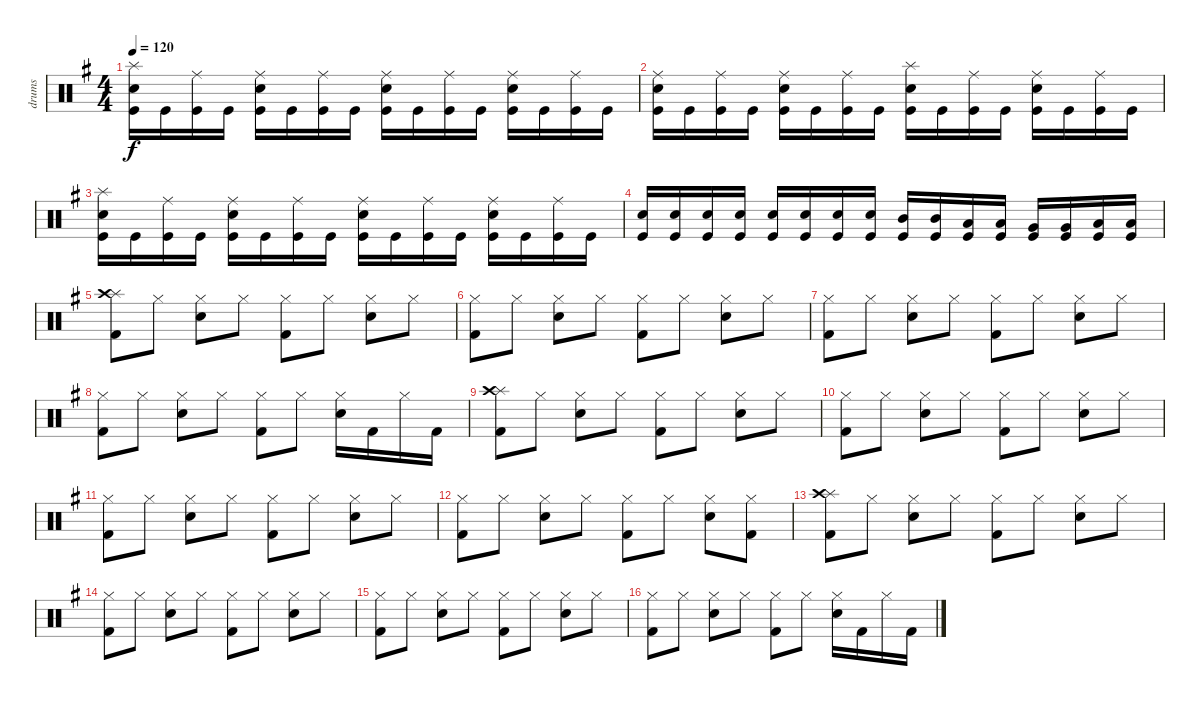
\track ("drums" "drums") {instrument percussion}
\staff {score}
\articulation defaults
\ts (4 4)
\tempo 120
\clef neutral
\ks eminor
("Kick (hit)" "Electric Snare (hit)" "Splash (hit)").16{dy f} "Kick (hit)".16 ("Kick (hit)" "Ride (middle)").16 "Kick (hit)".16 ("Kick (hit)" "Electric Snare (hit)" "Ride (middle)").16 "Kick (hit)".16 ("Kick (hit)" "Ride (middle)").16 "Kick (hit)".16 ("Kick (hit)" "Electric Snare (hit)" "Ride (middle)").16 "Kick (hit)".16 ("Kick (hit)" "Ride (middle)").16 "Kick (hit)".16 ("Kick (hit)" "Electric Snare (hit)" "Ride (middle)").16 "Kick (hit)".16 ("Kick (hit)" "Ride (middle)").16 "Kick (hit)".16 |
("Kick (hit)" "Electric Snare (hit)" "Ride (middle)").16 "Kick (hit)".16 ("Kick (hit)" "Ride (middle)").16 "Kick (hit)".16 ("Kick (hit)" "Electric Snare (hit)" "Ride (middle)").16 "Kick (hit)".16 ("Kick (hit)" "Ride (middle)").16 "Kick (hit)".16 ("Kick (hit)" "Electric Snare (hit)" "Splash (hit)").16 "Kick (hit)".16 ("Kick (hit)" "Ride (middle)").16 "Kick (hit)".16 ("Kick (hit)" "Electric Snare (hit)" "Ride (middle)").16 "Kick (hit)".16 ("Kick (hit)" "Ride (middle)").16 "Kick (hit)".16 |
("Kick (hit)" "Electric Snare (hit)" "Splash (hit)").16 "Kick (hit)".16 ("Kick (hit)" "Ride (middle)").16 "Kick (hit)".16 ("Kick (hit)" "Electric Snare (hit)" "Ride (middle)").16 "Kick (hit)".16 ("Kick (hit)" "Ride (middle)").16 "Kick (hit)".16 ("Kick (hit)" "Electric Snare (hit)" "Ride (middle)").16 "Kick (hit)".16 ("Kick (hit)" "Ride (middle)").16 "Kick (hit)".16 ("Kick (hit)" "Electric Snare (hit)" "Ride (middle)").16 "Kick (hit)".16 ("Kick (hit)" "Ride (middle)").16 "Kick (hit)".16 |
("Kick (hit)" "Electric Snare (hit)").16 ("Kick (hit)" "Electric Snare (hit)").16 ("Kick (hit)" "Electric Snare (hit)").16 ("Kick (hit)" "Electric Snare (hit)").16 ("Kick (hit)" "Electric Snare (hit)").16 ("Kick (hit)" "Electric Snare (hit)").16 ("Kick (hit)" "Electric Snare (hit)").16 ("Kick (hit)" "Electric Snare (hit)").16 ("Kick (hit)" "Mid Tom (hit)").16 ("Kick (hit)" "Mid Tom (hit)").16 ("Kick (hit)" "Low Tom (hit)").16 ("Kick (hit)" "Low Tom (hit)").16 ("Kick (hit)" "Very Low Tom (hit)").16 ("Kick (hit)" "Very Low Tom (hit)").16 ("Kick (hit)" "Low Floor Tom (hit)").16 ("Kick (hit)" "Low Floor Tom (hit)").16 |
("Kick (hit) 2" "Splash (hit)" "Crash high (hit)").8 "Hi-Hat (closed)".8 ("Electric Snare (hit)" "Hi-Hat (closed)").8 "Hi-Hat (closed)".8 ("Kick (hit) 2" "Hi-Hat (closed)").8 "Hi-Hat (closed)".8 ("Electric Snare (hit)" "Hi-Hat (closed)").8 "Hi-Hat (closed)".8 |
("Kick (hit) 2" "Hi-Hat (closed)").8 "Hi-Hat (closed)".8 ("Electric Snare (hit)" "Hi-Hat (closed)").8 "Hi-Hat (closed)".8 ("Kick (hit) 2" "Hi-Hat (closed)").8 "Hi-Hat (closed)".8 ("Electric Snare (hit)" "Hi-Hat (closed)").8 "Hi-Hat (closed)".8 |
("Kick (hit) 2" "Hi-Hat (closed)").8 "Hi-Hat (closed)".8 ("Electric Snare (hit)" "Hi-Hat (closed)").8 "Hi-Hat (closed)".8 ("Kick (hit) 2" "Hi-Hat (closed)").8 "Hi-Hat (closed)".8 ("Electric Snare (hit)" "Hi-Hat (closed)").8 "Hi-Hat (closed)".8 |
("Kick (hit) 2" "Hi-Hat (closed)").8 "Hi-Hat (closed)".8 ("Electric Snare (hit)" "Hi-Hat (closed)").8 "Hi-Hat (closed)".8 ("Kick (hit) 2" "Hi-Hat (closed)").8 "Hi-Hat (closed)".8 ("Electric Snare (hit)" "Hi-Hat (closed)").16 "Kick (hit) 2".16 "Hi-Hat (closed)".16 "Kick (hit) 2".16 |
("Kick (hit) 2" "Splash (hit)" "Crash high (hit)").8 "Hi-Hat (closed)".8 ("Electric Snare (hit)" "Hi-Hat (closed)").8 "Hi-Hat (closed)".8 ("Kick (hit) 2" "Hi-Hat (closed)").8 "Hi-Hat (closed)".8 ("Electric Snare (hit)" "Hi-Hat (closed)").8 "Hi-Hat (closed)".8 |
("Kick (hit) 2" "Hi-Hat (closed)").8 "Hi-Hat (closed)".8 ("Electric Snare (hit)" "Hi-Hat (closed)").8 "Hi-Hat (closed)".8 ("Kick (hit) 2" "Hi-Hat (closed)").8 "Hi-Hat (closed)".8 ("Electric Snare (hit)" "Hi-Hat (closed)").8 "Hi-Hat (closed)".8 |
("Kick (hit) 2" "Hi-Hat (closed)").8 "Hi-Hat (closed)".8 ("Electric Snare (hit)" "Hi-Hat (closed)").8 "Hi-Hat (closed)".8 ("Kick (hit) 2" "Hi-Hat (closed)").8 "Hi-Hat (closed)".8 ("Electric Snare (hit)" "Hi-Hat (closed)").8 "Hi-Hat (closed)".8 |
("Kick (hit) 2" "Hi-Hat (closed)").8 "Hi-Hat (closed)".8 ("Electric Snare (hit)" "Hi-Hat (closed)").8 "Hi-Hat (closed)".8 ("Kick (hit) 2" "Hi-Hat (closed)").8 "Hi-Hat (closed)".8 ("Electric Snare (hit)" "Hi-Hat (closed)").8 ("Kick (hit) 2" "Hi-Hat (closed)").8 |
("Kick (hit) 2" "Splash (hit)" "Crash high (hit)").8 "Hi-Hat (closed)".8 ("Electric Snare (hit)" "Hi-Hat (closed)").8 "Hi-Hat (closed)".8 ("Kick (hit) 2" "Hi-Hat (closed)").8 "Hi-Hat (closed)".8 ("Electric Snare (hit)" "Hi-Hat (closed)").8 "Hi-Hat (closed)".8 |
("Kick (hit) 2" "Hi-Hat (closed)").8 "Hi-Hat (closed)".8 ("Electric Snare (hit)" "Hi-Hat (closed)").8 "Hi-Hat (closed)".8 ("Kick (hit) 2" "Hi-Hat (closed)").8 "Hi-Hat (closed)".8 ("Electric Snare (hit)" "Hi-Hat (closed)").8 "Hi-Hat (closed)".8 |
("Kick (hit) 2" "Hi-Hat (closed)").8 "Hi-Hat (closed)".8 ("Electric Snare (hit)" "Hi-Hat (closed)").8 "Hi-Hat (closed)".8 ("Kick (hit) 2" "Hi-Hat (closed)").8 "Hi-Hat (closed)".8 ("Electric Snare (hit)" "Hi-Hat (closed)").8 "Hi-Hat (closed)".8 |
("Kick (hit) 2" "Hi-Hat (closed)").8 "Hi-Hat (closed)".8 ("Electric Snare (hit)" "Hi-Hat (closed)").8 "Hi-Hat (closed)".8 ("Kick (hit) 2" "Hi-Hat (closed)").8 "Hi-Hat (closed)".8 ("Electric Snare (hit)" "Hi-Hat (closed)").16 "Kick (hit) 2".16 "Hi-Hat (closed)".16 "Kick (hit) 2".16
